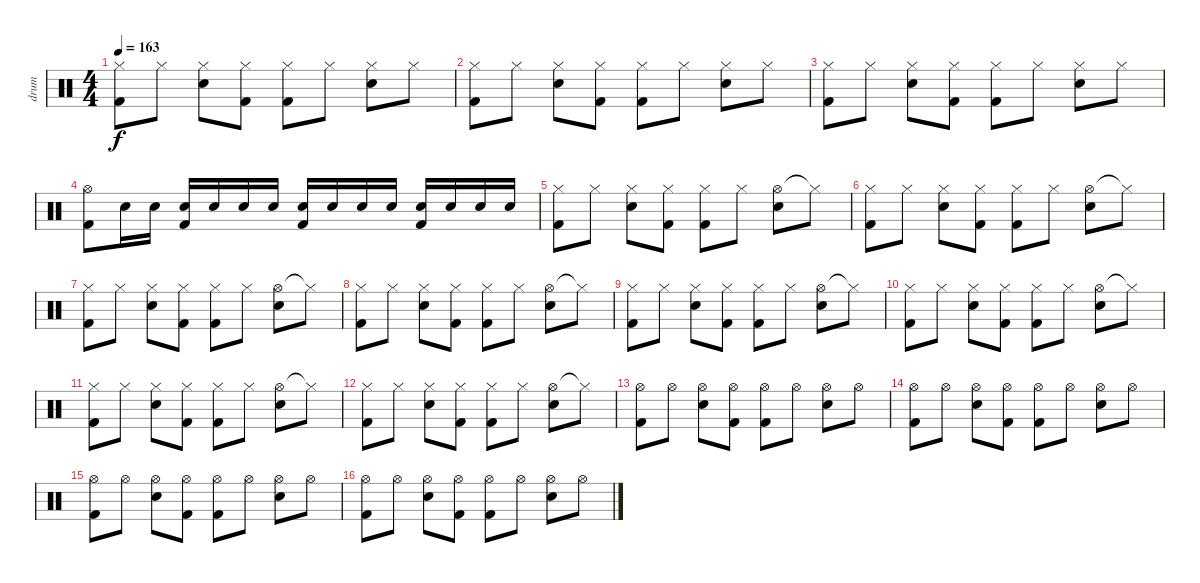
\track ("drum" "drum") {instrument percussion}
\staff {score}
\articulation defaults
\ts (4 4)
\tempo 163
\clef neutral
\ks c
("Hi-Hat (closed)" "Kick (hit) 2").8{dy f} "Hi-Hat (closed)".8 ("Hi-Hat (closed)" "Electric Snare (hit)").8 ("Hi-Hat (closed)" "Kick (hit) 2").8 ("Hi-Hat (closed)" "Kick (hit) 2").8 "Hi-Hat (closed)".8 ("Hi-Hat (closed)" "Electric Snare (hit)").8 "Hi-Hat (closed)".8 |
("Hi-Hat (closed)" "Kick (hit) 2").8 "Hi-Hat (closed)".8 ("Hi-Hat (closed)" "Electric Snare (hit)").8 ("Hi-Hat (closed)" "Kick (hit) 2").8 ("Hi-Hat (closed)" "Kick (hit) 2").8 "Hi-Hat (closed)".8 ("Hi-Hat (closed)" "Electric Snare (hit)").8 "Hi-Hat (closed)".8 |
("Hi-Hat (closed)" "Kick (hit) 2").8 "Hi-Hat (closed)".8 ("Hi-Hat (closed)" "Electric Snare (hit)").8 ("Hi-Hat (closed)" "Kick (hit) 2").8 ("Hi-Hat (closed)" "Kick (hit) 2").8 "Hi-Hat (closed)".8 ("Hi-Hat (closed)" "Electric Snare (hit)").8 "Hi-Hat (closed)".8 |
("Hi-Hat (open)" "Kick (hit) 2").8 "Electric Snare (hit)".16 "Electric Snare (hit)".16 ("Electric Snare (hit)" "Kick (hit) 2").16 "Electric Snare (hit)".16 "Electric Snare (hit)".16 "Electric Snare (hit)".16 ("Electric Snare (hit)" "Kick (hit) 2").16 "Electric Snare (hit)".16 "Electric Snare (hit)".16 "Electric Snare (hit)".16 ("Electric Snare (hit)" "Kick (hit) 2").16 "Electric Snare (hit)".16 "Electric Snare (hit)".16 "Electric Snare (hit)".16 |
("Hi-Hat (closed)" "Kick (hit) 2").8 "Hi-Hat (closed)".8 ("Hi-Hat (closed)" "Electric Snare (hit)").8 ("Hi-Hat (closed)" "Kick (hit) 2").8 ("Hi-Hat (closed)" "Kick (hit) 2").8 "Hi-Hat (closed)".8 ("Hi-Hat (open)" "Electric Snare (hit)").8 "Hi-Hat (closed)"{t}.8 |
("Hi-Hat (closed)" "Kick (hit) 2").8 "Hi-Hat (closed)".8 ("Hi-Hat (closed)" "Electric Snare (hit)").8 ("Hi-Hat (closed)" "Kick (hit) 2").8 ("Hi-Hat (closed)" "Kick (hit) 2").8 "Hi-Hat (closed)".8 ("Hi-Hat (open)" "Electric Snare (hit)").8 "Hi-Hat (closed)"{t}.8 |
("Hi-Hat (closed)" "Kick (hit) 2").8 "Hi-Hat (closed)".8 ("Hi-Hat (closed)" "Electric Snare (hit)").8 ("Hi-Hat (closed)" "Kick (hit) 2").8 ("Hi-Hat (closed)" "Kick (hit) 2").8 "Hi-Hat (closed)".8 ("Hi-Hat (open)" "Electric Snare (hit)").8 "Hi-Hat (closed)"{t}.8 |
("Hi-Hat (closed)" "Kick (hit) 2").8 "Hi-Hat (closed)".8 ("Hi-Hat (closed)" "Electric Snare (hit)").8 ("Hi-Hat (closed)" "Kick (hit) 2").8 ("Hi-Hat (closed)" "Kick (hit) 2").8 "Hi-Hat (closed)".8 ("Hi-Hat (open)" "Electric Snare (hit)").8 "Hi-Hat (closed)"{t}.8 |
("Hi-Hat (closed)" "Kick (hit) 2").8 "Hi-Hat (closed)".8 ("Hi-Hat (closed)" "Electric Snare (hit)").8 ("Hi-Hat (closed)" "Kick (hit) 2").8 ("Hi-Hat (closed)" "Kick (hit) 2").8 "Hi-Hat (closed)".8 ("Hi-Hat (open)" "Electric Snare (hit)").8 "Hi-Hat (closed)"{t}.8 |
("Hi-Hat (closed)" "Kick (hit) 2").8 "Hi-Hat (closed)".8 ("Hi-Hat (closed)" "Electric Snare (hit)").8 ("Hi-Hat (closed)" "Kick (hit) 2").8 ("Hi-Hat (closed)" "Kick (hit) 2").8 "Hi-Hat (closed)".8 ("Hi-Hat (open)" "Electric Snare (hit)").8 "Hi-Hat (closed)"{t}.8 |
("Hi-Hat (closed)" "Kick (hit) 2").8 "Hi-Hat (closed)".8 ("Hi-Hat (closed)" "Electric Snare (hit)").8 ("Hi-Hat (closed)" "Kick (hit) 2").8 ("Hi-Hat (closed)" "Kick (hit) 2").8 "Hi-Hat (closed)".8 ("Hi-Hat (open)" "Electric Snare (hit)").8 "Hi-Hat (closed)"{t}.8 |
("Hi-Hat (closed)" "Kick (hit) 2").8 "Hi-Hat (closed)".8 ("Hi-Hat (closed)" "Electric Snare (hit)").8 ("Hi-Hat (closed)" "Kick (hit) 2").8 ("Hi-Hat (closed)" "Kick (hit) 2").8 "Hi-Hat (closed)".8 ("Hi-Hat (open)" "Electric Snare (hit)").8 "Hi-Hat (closed)"{t}.8 |
("Hi-Hat (open)" "Kick (hit) 2").8 "Hi-Hat (open)".8 ("Hi-Hat (open)" "Electric Snare (hit)").8 ("Hi-Hat (open)" "Kick (hit) 2").8 ("Hi-Hat (open)" "Kick (hit) 2").8 "Hi-Hat (open)".8 ("Hi-Hat (open)" "Electric Snare (hit)").8 "Hi-Hat (open)".8 |
("Hi-Hat (open)" "Kick (hit) 2").8 "Hi-Hat (open)".8 ("Hi-Hat (open)" "Electric Snare (hit)").8 ("Hi-Hat (open)" "Kick (hit) 2").8 ("Hi-Hat (open)" "Kick (hit) 2").8 "Hi-Hat (open)".8 ("Hi-Hat (open)" "Electric Snare (hit)").8 "Hi-Hat (open)".8 |
("Hi-Hat (open)" "Kick (hit) 2").8 "Hi-Hat (open)".8 ("Hi-Hat (open)" "Electric Snare (hit)").8 ("Hi-Hat (open)" "Kick (hit) 2").8 ("Hi-Hat (open)" "Kick (hit) 2").8 "Hi-Hat (open)".8 ("Hi-Hat (open)" "Electric Snare (hit)").8 "Hi-Hat (open)".8 |
("Hi-Hat (open)" "Kick (hit) 2").8 "Hi-Hat (open)".8 ("Hi-Hat (open)" "Electric Snare (hit)").8 ("Hi-Hat (open)" "Kick (hit) 2").8 ("Hi-Hat (open)" "Kick (hit) 2").8 "Hi-Hat (open)".8 ("Hi-Hat (open)" "Electric Snare (hit)").8 "Hi-Hat (open)".8
